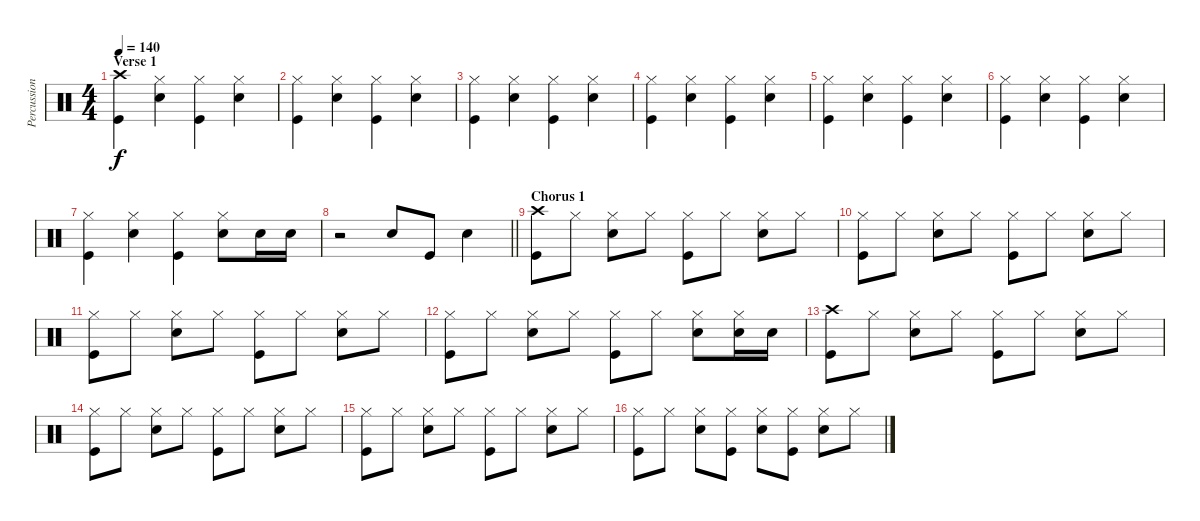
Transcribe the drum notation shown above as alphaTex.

\track ("Percussion" "Percussion") {instrument percussion}
\staff {score}
\articulation defaults
\ts (4 4)
\section ("" "Verse 1")
\tempo 140
\clef neutral
\ks c
("Kick (hit)" "Crash high (hit)").4{dy f} ("Snare (hit) 2" "Hi-Hat (closed)").4 ("Kick (hit)" "Hi-Hat (closed)").4 ("Snare (hit) 2" "Hi-Hat (closed)").4 |
("Kick (hit)" "Hi-Hat (closed)").4 ("Snare (hit) 2" "Hi-Hat (closed)").4 ("Kick (hit)" "Hi-Hat (closed)").4 ("Snare (hit) 2" "Hi-Hat (closed)").4 |
("Kick (hit)" "Hi-Hat (closed)").4 ("Snare (hit) 2" "Hi-Hat (closed)").4 ("Kick (hit)" "Hi-Hat (closed)").4 ("Snare (hit) 2" "Hi-Hat (closed)").4 |
("Kick (hit)" "Hi-Hat (closed)").4 ("Snare (hit) 2" "Hi-Hat (closed)").4 ("Kick (hit)" "Hi-Hat (closed)").4 ("Snare (hit) 2" "Hi-Hat (closed)").4 |
("Kick (hit)" "Hi-Hat (closed)").4 ("Snare (hit) 2" "Hi-Hat (closed)").4 ("Kick (hit)" "Hi-Hat (closed)").4 ("Snare (hit) 2" "Hi-Hat (closed)").4 |
("Kick (hit)" "Hi-Hat (closed)").4 ("Snare (hit) 2" "Hi-Hat (closed)").4 ("Kick (hit)" "Hi-Hat (closed)").4 ("Snare (hit) 2" "Hi-Hat (closed)").4 |
("Kick (hit)" "Hi-Hat (closed)").4 ("Snare (hit) 2" "Hi-Hat (closed)").4 ("Kick (hit)" "Hi-Hat (closed)").4 ("Snare (hit) 2" "Hi-Hat (closed)").8 "Snare (hit) 2".16 "Snare (hit) 2".16 |
\barLineRight lightlight
r.2 "Snare (hit) 2".8 "Kick (hit)".8 "Snare (hit) 2".4 |
\section ("" "Chorus 1")
("Crash high (hit)" "Kick (hit)").8 "Hi-Hat (closed)".8 ("Snare (hit) 2" "Hi-Hat (closed)").8 "Hi-Hat (closed)".8 ("Kick (hit)" "Hi-Hat (closed)").8 "Hi-Hat (closed)".8 ("Hi-Hat (closed)" "Snare (hit) 2").8 "Hi-Hat (closed)".8 |
("Hi-Hat (closed)" "Kick (hit)").8 "Hi-Hat (closed)".8 ("Snare (hit) 2" "Hi-Hat (closed)").8 "Hi-Hat (closed)".8 ("Kick (hit)" "Hi-Hat (closed)").8 "Hi-Hat (closed)".8 ("Hi-Hat (closed)" "Snare (hit) 2").8 "Hi-Hat (closed)".8 |
("Hi-Hat (closed)" "Kick (hit)").8 "Hi-Hat (closed)".8 ("Snare (hit) 2" "Hi-Hat (closed)").8 "Hi-Hat (closed)".8 ("Kick (hit)" "Hi-Hat (closed)").8 "Hi-Hat (closed)".8 ("Hi-Hat (closed)" "Snare (hit) 2").8 "Hi-Hat (closed)".8 |
("Hi-Hat (closed)" "Kick (hit)").8 "Hi-Hat (closed)".8 ("Snare (hit) 2" "Hi-Hat (closed)").8 "Hi-Hat (closed)".8 ("Kick (hit)" "Hi-Hat (closed)").8 "Hi-Hat (closed)".8 ("Hi-Hat (closed)" "Snare (hit) 2").8 ("Hi-Hat (closed)" "Snare (hit) 2").16 "Snare (hit) 2".16 |
("Crash high (hit)" "Kick (hit)").8 "Hi-Hat (closed)".8 ("Snare (hit) 2" "Hi-Hat (closed)").8 "Hi-Hat (closed)".8 ("Kick (hit)" "Hi-Hat (closed)").8 "Hi-Hat (closed)".8 ("Hi-Hat (closed)" "Snare (hit) 2").8 "Hi-Hat (closed)".8 |
("Hi-Hat (closed)" "Kick (hit)").8 "Hi-Hat (closed)".8 ("Snare (hit) 2" "Hi-Hat (closed)").8 "Hi-Hat (closed)".8 ("Kick (hit)" "Hi-Hat (closed)").8 "Hi-Hat (closed)".8 ("Hi-Hat (closed)" "Snare (hit) 2").8 "Hi-Hat (closed)".8 |
("Hi-Hat (closed)" "Kick (hit)").8 "Hi-Hat (closed)".8 ("Snare (hit) 2" "Hi-Hat (closed)").8 "Hi-Hat (closed)".8 ("Kick (hit)" "Hi-Hat (closed)").8 "Hi-Hat (closed)".8 ("Hi-Hat (closed)" "Snare (hit) 2").8 "Hi-Hat (closed)".8 |
("Hi-Hat (closed)" "Kick (hit)").8 "Hi-Hat (closed)".8 ("Snare (hit) 2" "Hi-Hat (closed)").8 ("Hi-Hat (closed)" "Kick (hit)").8 ("Hi-Hat (closed)" "Snare (hit) 2").8 ("Hi-Hat (closed)" "Kick (hit)").8 ("Hi-Hat (closed)" "Snare (hit) 2").8 "Hi-Hat (closed)".8
